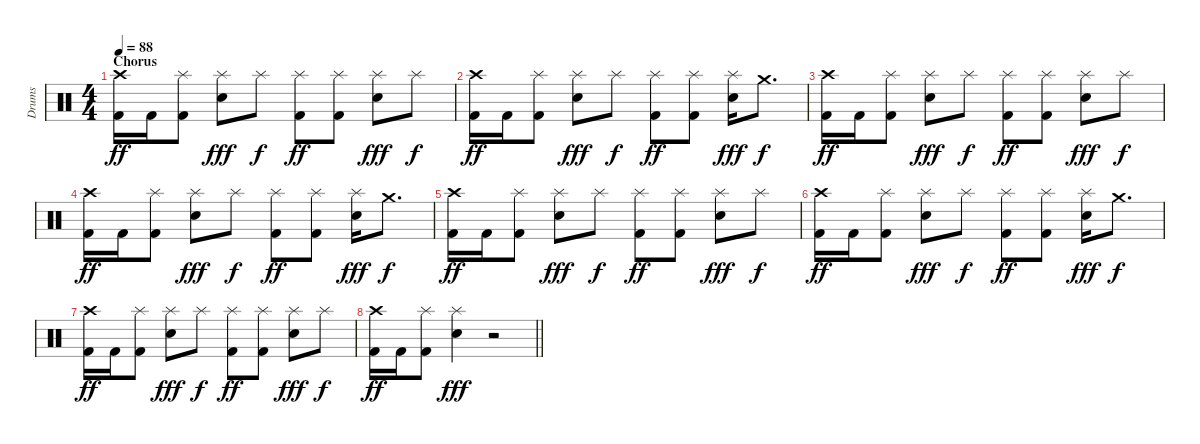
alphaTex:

\track ("Drums" "Drums") {instrument percussion}
\staff {score}
\articulation defaults
\ts (4 4)
\section ("" "Chorus")
\tempo 88
\clef neutral
\ks c
("Crash high (hit)" "Kick (hit) 2").16{dy ff} "Kick (hit) 2".16 ("Splash (hit)" "Kick (hit) 2").8 ("Splash (hit)" "Snare (hit) 2").8{dy fff} "Splash (hit)".8{dy f} ("Splash (hit)" "Kick (hit) 2").8{dy ff} ("Splash (hit)" "Kick (hit) 2").8 ("Splash (hit)" "Snare (hit) 2").8{dy fff} "Splash (hit)".8{dy f} |
("Crash high (hit)" "Kick (hit) 2").16{dy ff} "Kick (hit) 2".16 ("Splash (hit)" "Kick (hit) 2").8 ("Splash (hit)" "Snare (hit) 2").8{dy fff} "Splash (hit)".8{dy f} ("Splash (hit)" "Kick (hit) 2").8{dy ff} ("Splash (hit)" "Kick (hit) 2").8 ("Splash (hit)" "Snare (hit) 2").16{dy fff} "Crash medium (hit)".8{d dy f} |
("Crash high (hit)" "Kick (hit) 2").16{dy ff} "Kick (hit) 2".16 ("Splash (hit)" "Kick (hit) 2").8 ("Splash (hit)" "Snare (hit) 2").8{dy fff} "Splash (hit)".8{dy f} ("Splash (hit)" "Kick (hit) 2").8{dy ff} ("Splash (hit)" "Kick (hit) 2").8 ("Splash (hit)" "Snare (hit) 2").8{dy fff} "Splash (hit)".8{dy f} |
("Crash high (hit)" "Kick (hit) 2").16{dy ff} "Kick (hit) 2".16 ("Splash (hit)" "Kick (hit) 2").8 ("Splash (hit)" "Snare (hit) 2").8{dy fff} "Splash (hit)".8{dy f} ("Splash (hit)" "Kick (hit) 2").8{dy ff} ("Splash (hit)" "Kick (hit) 2").8 ("Splash (hit)" "Snare (hit) 2").16{dy fff} "Crash medium (hit)".8{d dy f} |
("Crash high (hit)" "Kick (hit) 2").16{dy ff} "Kick (hit) 2".16 ("Splash (hit)" "Kick (hit) 2").8 ("Splash (hit)" "Snare (hit) 2").8{dy fff} "Splash (hit)".8{dy f} ("Splash (hit)" "Kick (hit) 2").8{dy ff} ("Splash (hit)" "Kick (hit) 2").8 ("Splash (hit)" "Snare (hit) 2").8{dy fff} "Splash (hit)".8{dy f} |
("Crash high (hit)" "Kick (hit) 2").16{dy ff} "Kick (hit) 2".16 ("Splash (hit)" "Kick (hit) 2").8 ("Splash (hit)" "Snare (hit) 2").8{dy fff} "Splash (hit)".8{dy f} ("Splash (hit)" "Kick (hit) 2").8{dy ff} ("Splash (hit)" "Kick (hit) 2").8 ("Splash (hit)" "Snare (hit) 2").16{dy fff} "Crash medium (hit)".8{d dy f} |
("Crash high (hit)" "Kick (hit) 2").16{dy ff} "Kick (hit) 2".16 ("Splash (hit)" "Kick (hit) 2").8 ("Splash (hit)" "Snare (hit) 2").8{dy fff} "Splash (hit)".8{dy f} ("Splash (hit)" "Kick (hit) 2").8{dy ff} ("Splash (hit)" "Kick (hit) 2").8 ("Splash (hit)" "Snare (hit) 2").8{dy fff} "Splash (hit)".8{dy f} |
\barLineRight lightlight
("Crash high (hit)" "Kick (hit) 2").16{dy ff} "Kick (hit) 2".16 ("Splash (hit)" "Kick (hit) 2").8 ("Splash (hit)" "Snare (hit) 2").4{dy fff} r.2
